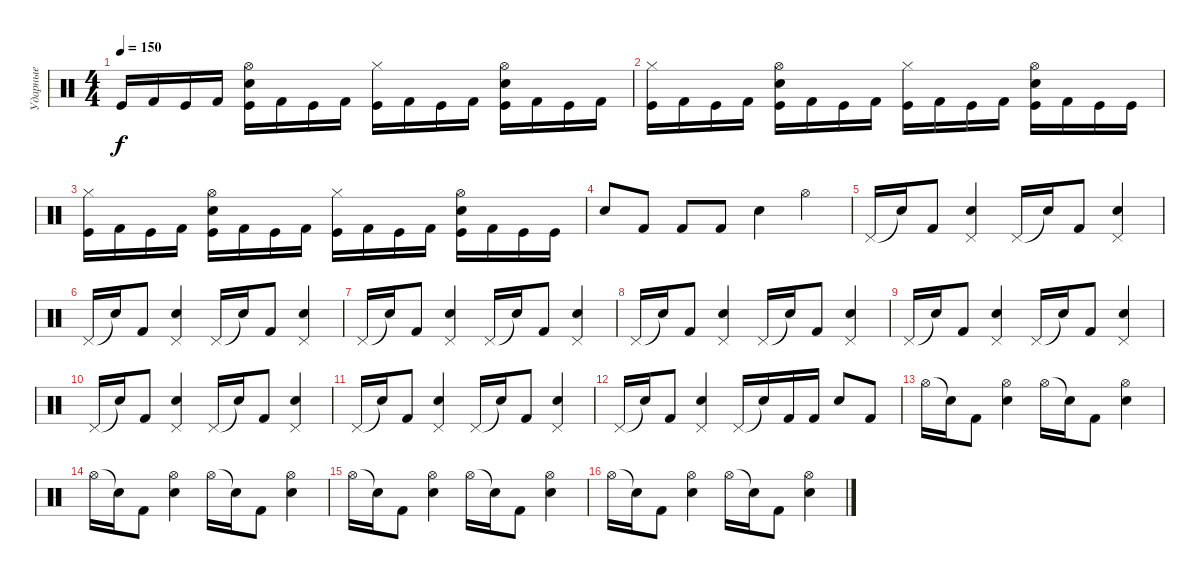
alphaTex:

\track ("Ударные" "Ударные") {instrument percussion bank 25}
\staff {score}
\articulation defaults
\ts (4 4)
\tempo 150
\clef neutral
\ks c "Kick (hit)".16{dy f} "Kick (hit) 2".16 "Kick (hit)".16 "Kick (hit) 2".16
("Kick (hit)" "Electric Snare (hit)" "Hi-Hat (open)").16 "Kick (hit) 2".16 "Kick (hit)".16 "Kick (hit) 2".16 ("Kick (hit)" "Hi-Hat (closed)").16 "Kick (hit) 2".16 "Kick (hit)".16 "Kick (hit) 2".16 ("Kick (hit)" "Electric Snare (hit)" "Hi-Hat (open)").16 "Kick (hit) 2".16 "Kick (hit)".16 "Kick (hit) 2".16 |
("Kick (hit)" "Hi-Hat (closed)").16 "Kick (hit) 2".16 "Kick (hit)".16 "Kick (hit) 2".16 ("Kick (hit)" "Electric Snare (hit)" "Hi-Hat (open)").16 "Kick (hit) 2".16 "Kick (hit)".16 "Kick (hit) 2".16 ("Kick (hit)" "Hi-Hat (closed)").16 "Kick (hit) 2".16 "Kick (hit)".16 "Kick (hit) 2".16 ("Kick (hit)" "Electric Snare (hit)" "Hi-Hat (open)").16 "Kick (hit) 2".16 "Kick (hit)".16 "Kick (hit)".16 |
("Kick (hit)" "Hi-Hat (closed)").16 "Kick (hit) 2".16 "Kick (hit)".16 "Kick (hit) 2".16 ("Kick (hit)" "Electric Snare (hit)" "Hi-Hat (open)").16 "Kick (hit) 2".16 "Kick (hit)".16 "Kick (hit) 2".16 ("Kick (hit)" "Hi-Hat (closed)").16 "Kick (hit) 2".16 "Kick (hit)".16 "Kick (hit) 2".16 ("Kick (hit)" "Electric Snare (hit)" "Hi-Hat (open)").16 "Kick (hit) 2".16 "Kick (hit)".16 "Kick (hit)".16 |
"Electric Snare (hit)".8 "Kick (hit) 2".8 "Kick (hit) 2".8 "Kick (hit) 2".8 "Snare (hit) 2".4 "Hi-Hat (open)".4 |
"Pedal Hi-Hat (hit)".16 "Snare (hit)"{t}.16 "Kick (hit) 2".8 ("Snare (hit) 2" "Pedal Hi-Hat (hit)").4 "Pedal Hi-Hat (hit)".16 "Snare (hit)"{t}.16 "Kick (hit) 2".8 ("Snare (hit) 2" "Pedal Hi-Hat (hit)").4 |
"Pedal Hi-Hat (hit)".16 "Snare (hit)"{t}.16 "Kick (hit) 2".8 ("Snare (hit) 2" "Pedal Hi-Hat (hit)").4 "Pedal Hi-Hat (hit)".16 "Snare (hit)"{t}.16 "Kick (hit) 2".8 ("Snare (hit) 2" "Pedal Hi-Hat (hit)").4 |
"Pedal Hi-Hat (hit)".16 "Snare (hit)"{t}.16 "Kick (hit) 2".8 ("Snare (hit) 2" "Pedal Hi-Hat (hit)").4 "Pedal Hi-Hat (hit)".16 "Snare (hit)"{t}.16 "Kick (hit) 2".8 ("Snare (hit) 2" "Pedal Hi-Hat (hit)").4 |
"Pedal Hi-Hat (hit)".16 "Snare (hit)"{t}.16 "Kick (hit) 2".8 ("Snare (hit) 2" "Pedal Hi-Hat (hit)").4 "Pedal Hi-Hat (hit)".16 "Snare (hit)"{t}.16 "Kick (hit) 2".8 ("Snare (hit) 2" "Pedal Hi-Hat (hit)").4 |
"Pedal Hi-Hat (hit)".16 "Snare (hit)"{t}.16 "Kick (hit) 2".8 ("Snare (hit) 2" "Pedal Hi-Hat (hit)").4 "Pedal Hi-Hat (hit)".16 "Snare (hit)"{t}.16 "Kick (hit) 2".8 ("Snare (hit) 2" "Pedal Hi-Hat (hit)").4 |
"Pedal Hi-Hat (hit)".16 "Snare (hit)"{t}.16 "Kick (hit) 2".8 ("Snare (hit) 2" "Pedal Hi-Hat (hit)").4 "Pedal Hi-Hat (hit)".16 "Snare (hit)"{t}.16 "Kick (hit) 2".8 ("Snare (hit) 2" "Pedal Hi-Hat (hit)").4 |
"Pedal Hi-Hat (hit)".16 "Snare (hit)"{t}.16 "Kick (hit) 2".8 ("Snare (hit) 2" "Pedal Hi-Hat (hit)").4 "Pedal Hi-Hat (hit)".16 "Snare (hit)"{t}.16 "Kick (hit) 2".8 ("Snare (hit) 2" "Pedal Hi-Hat (hit)").4 |
"Pedal Hi-Hat (hit)".16 "Snare (hit)"{t}.16 "Kick (hit) 2".8 ("Snare (hit) 2" "Pedal Hi-Hat (hit)").4 "Pedal Hi-Hat (hit)".16 "Snare (hit)"{t}.16 "Kick (hit) 2".16 "Kick (hit) 2".16 "Electric Snare (hit)".8 "Kick (hit) 2".8 |
"Hi-Hat (open)".16 "Snare (hit)"{t}.16 "Kick (hit) 2".8 ("Snare (hit) 2" "Hi-Hat (open)").4 "Hi-Hat (open)".16 "Snare (hit)"{t}.16 "Kick (hit) 2".8 ("Snare (hit) 2" "Hi-Hat (open)").4 |
"Hi-Hat (open)".16 "Snare (hit)"{t}.16 "Kick (hit) 2".8 ("Snare (hit) 2" "Hi-Hat (open)").4 "Hi-Hat (open)".16 "Snare (hit)"{t}.16 "Kick (hit) 2".8 ("Snare (hit) 2" "Hi-Hat (open)").4 |
"Hi-Hat (open)".16 "Snare (hit)"{t}.16 "Kick (hit) 2".8 ("Snare (hit) 2" "Hi-Hat (open)").4 "Hi-Hat (open)".16 "Snare (hit)"{t}.16 "Kick (hit) 2".8 ("Snare (hit) 2" "Hi-Hat (open)").4 |
"Hi-Hat (open)".16 "Snare (hit)"{t}.16 "Kick (hit) 2".8 ("Snare (hit) 2" "Hi-Hat (open)").4 "Hi-Hat (open)".16 "Snare (hit)"{t}.16 "Kick (hit) 2".8 ("Snare (hit) 2" "Hi-Hat (open)").4
